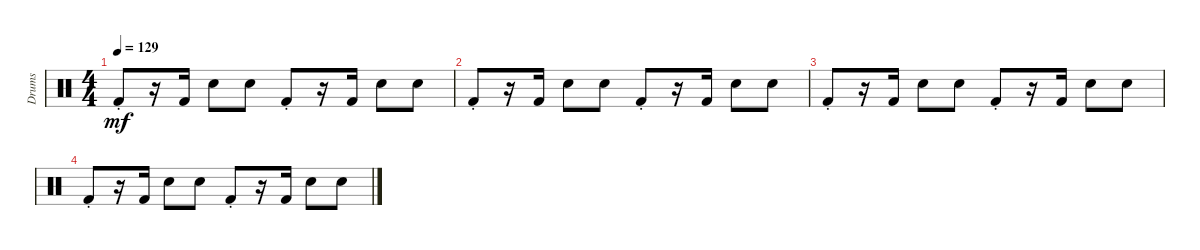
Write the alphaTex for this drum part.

\track ("Drums" "Drums") {instrument percussion}
\staff {score}
\articulation defaults
\ts (4 4)
\tempo 129
\clef neutral
\ks c "Kick (hit) 2"{st}.8{dy mf}
r.16 "Kick (hit) 2".16 "Electric Snare (hit)".8 "Electric Snare (hit)".8 "Kick (hit) 2"{st}.8 r.16 "Kick (hit) 2".16 "Electric Snare (hit)".8 "Electric Snare (hit)".8 |
"Kick (hit) 2"{st}.8 r.16 "Kick (hit) 2".16 "Electric Snare (hit)".8 "Electric Snare (hit)".8 "Kick (hit) 2"{st}.8 r.16 "Kick (hit) 2".16 "Electric Snare (hit)".8 "Electric Snare (hit)".8 |
"Kick (hit) 2"{st}.8 r.16 "Kick (hit) 2".16 "Electric Snare (hit)".8 "Electric Snare (hit)".8 "Kick (hit) 2"{st}.8 r.16 "Kick (hit) 2".16 "Electric Snare (hit)".8 "Electric Snare (hit)".8 |
"Kick (hit) 2"{st}.8 r.16 "Kick (hit) 2".16 "Electric Snare (hit)".8 "Electric Snare (hit)".8 "Kick (hit) 2"{st}.8 r.16 "Kick (hit) 2".16 "Electric Snare (hit)".8 "Electric Snare (hit)".8
